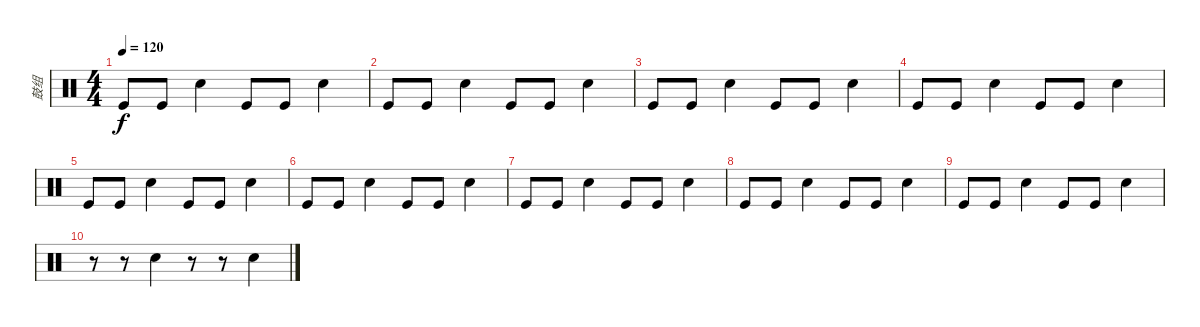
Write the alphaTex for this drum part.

\track ("鼓组" "鼓组") {instrument percussion}
\staff {score}
\articulation defaults
\ts (4 4)
\tempo 120
\clef neutral
\ks c "Kick (hit)".8{dy f} "Kick (hit)".8 "Snare (hit) 2".4 "Kick (hit)".8 "Kick (hit)".8 "Snare (hit) 2".4
|
"Kick (hit)".8 "Kick (hit)".8 "Snare (hit) 2".4 "Kick (hit)".8 "Kick (hit)".8 "Snare (hit) 2".4 |
"Kick (hit)".8 "Kick (hit)".8 "Snare (hit) 2".4 "Kick (hit)".8 "Kick (hit)".8 "Snare (hit) 2".4 |
"Kick (hit)".8 "Kick (hit)".8 "Snare (hit) 2".4 "Kick (hit)".8 "Kick (hit)".8 "Snare (hit) 2".4 |
"Kick (hit)".8 "Kick (hit)".8 "Snare (hit) 2".4 "Kick (hit)".8 "Kick (hit)".8 "Snare (hit) 2".4 |
"Kick (hit)".8 "Kick (hit)".8 "Snare (hit) 2".4 "Kick (hit)".8 "Kick (hit)".8 "Snare (hit) 2".4 |
"Kick (hit)".8 "Kick (hit)".8 "Snare (hit) 2".4 "Kick (hit)".8 "Kick (hit)".8 "Snare (hit) 2".4 |
"Kick (hit)".8 "Kick (hit)".8 "Snare (hit) 2".4 "Kick (hit)".8 "Kick (hit)".8 "Snare (hit) 2".4 |
"Kick (hit)".8 "Kick (hit)".8 "Snare (hit) 2".4 "Kick (hit)".8 "Kick (hit)".8 "Snare (hit) 2".4 |
r.8 r.8 "Snare (hit) 2".4 r.8 r.8 "Snare (hit) 2".4
